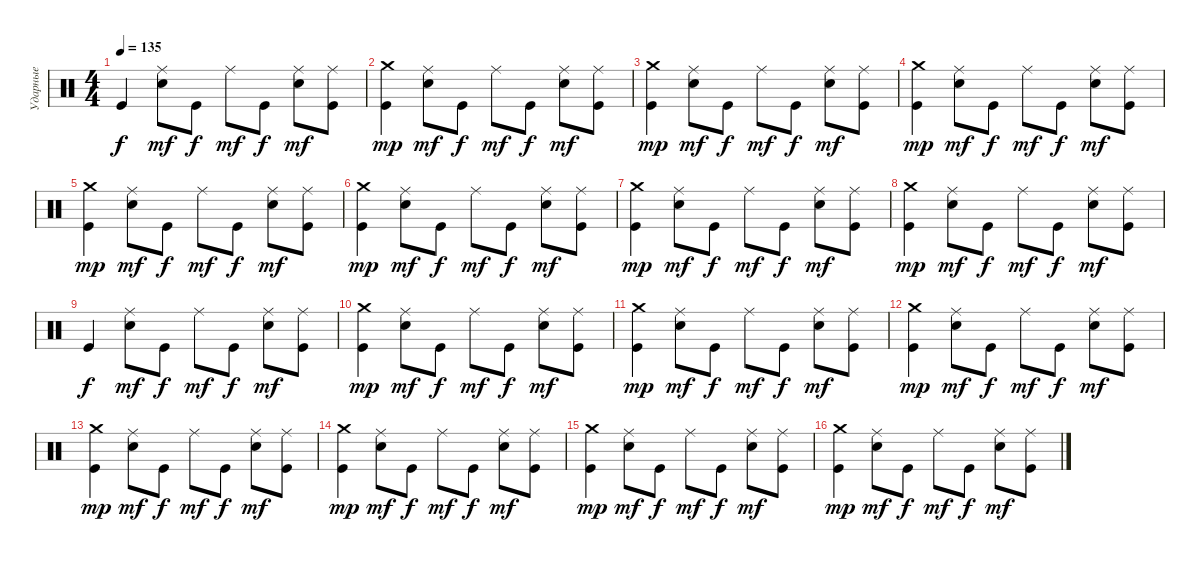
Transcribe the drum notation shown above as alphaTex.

\track ("Ударные" "Ударные") {instrument percussion}
\staff {score}
\articulation defaults
\ts (4 4)
\tempo 135
\clef neutral
\ks c "Kick (hit)".4{dy f}
("Ride (middle)" "Electric Snare (hit)").8{dy mf} "Kick (hit)".8{dy f} "Ride (middle)".8{dy mf} "Kick (hit)".8{dy f} ("Ride (middle)" "Electric Snare (hit)").8{dy mf} ("Ride (middle)" "Kick (hit)").8 |
("Crash medium (hit)" "Kick (hit)").4{dy mp} ("Ride (middle)" "Electric Snare (hit)").8{dy mf} "Kick (hit)".8{dy f} "Ride (middle)".8{dy mf} "Kick (hit)".8{dy f} ("Ride (middle)" "Electric Snare (hit)").8{dy mf} ("Ride (middle)" "Kick (hit)").8 |
("Crash medium (hit)" "Kick (hit)").4{dy mp} ("Ride (middle)" "Electric Snare (hit)").8{dy mf} "Kick (hit)".8{dy f} "Ride (middle)".8{dy mf} "Kick (hit)".8{dy f} ("Ride (middle)" "Electric Snare (hit)").8{dy mf} ("Ride (middle)" "Kick (hit)").8 |
("Crash medium (hit)" "Kick (hit)").4{dy mp} ("Ride (middle)" "Electric Snare (hit)").8{dy mf} "Kick (hit)".8{dy f} "Ride (middle)".8{dy mf} "Kick (hit)".8{dy f} ("Ride (middle)" "Electric Snare (hit)").8{dy mf} ("Ride (middle)" "Kick (hit)").8 |
("Crash medium (hit)" "Kick (hit)").4{dy mp} ("Ride (middle)" "Electric Snare (hit)").8{dy mf} "Kick (hit)".8{dy f} "Ride (middle)".8{dy mf} "Kick (hit)".8{dy f} ("Ride (middle)" "Electric Snare (hit)").8{dy mf} ("Ride (middle)" "Kick (hit)").8 |
("Crash medium (hit)" "Kick (hit)").4{dy mp} ("Ride (middle)" "Electric Snare (hit)").8{dy mf} "Kick (hit)".8{dy f} "Ride (middle)".8{dy mf} "Kick (hit)".8{dy f} ("Ride (middle)" "Electric Snare (hit)").8{dy mf} ("Ride (middle)" "Kick (hit)").8 |
("Crash medium (hit)" "Kick (hit)").4{dy mp} ("Ride (middle)" "Electric Snare (hit)").8{dy mf} "Kick (hit)".8{dy f} "Ride (middle)".8{dy mf} "Kick (hit)".8{dy f} ("Ride (middle)" "Electric Snare (hit)").8{dy mf} ("Ride (middle)" "Kick (hit)").8 |
("Crash medium (hit)" "Kick (hit)").4{dy mp} ("Ride (middle)" "Electric Snare (hit)").8{dy mf} "Kick (hit)".8{dy f} "Ride (middle)".8{dy mf} "Kick (hit)".8{dy f} ("Ride (middle)" "Electric Snare (hit)").8{dy mf} ("Ride (middle)" "Kick (hit)").8 |
"Kick (hit)".4{dy f} ("Ride (middle)" "Electric Snare (hit)").8{dy mf} "Kick (hit)".8{dy f} "Ride (middle)".8{dy mf} "Kick (hit)".8{dy f} ("Ride (middle)" "Electric Snare (hit)").8{dy mf} ("Ride (middle)" "Kick (hit)").8 |
("Crash medium (hit)" "Kick (hit)").4{dy mp} ("Ride (middle)" "Electric Snare (hit)").8{dy mf} "Kick (hit)".8{dy f} "Ride (middle)".8{dy mf} "Kick (hit)".8{dy f} ("Ride (middle)" "Electric Snare (hit)").8{dy mf} ("Ride (middle)" "Kick (hit)").8 |
("Crash medium (hit)" "Kick (hit)").4{dy mp} ("Ride (middle)" "Electric Snare (hit)").8{dy mf} "Kick (hit)".8{dy f} "Ride (middle)".8{dy mf} "Kick (hit)".8{dy f} ("Ride (middle)" "Electric Snare (hit)").8{dy mf} ("Ride (middle)" "Kick (hit)").8 |
("Crash medium (hit)" "Kick (hit)").4{dy mp} ("Ride (middle)" "Electric Snare (hit)").8{dy mf} "Kick (hit)".8{dy f} "Ride (middle)".8{dy mf} "Kick (hit)".8{dy f} ("Ride (middle)" "Electric Snare (hit)").8{dy mf} ("Ride (middle)" "Kick (hit)").8 |
("Crash medium (hit)" "Kick (hit)").4{dy mp} ("Ride (middle)" "Electric Snare (hit)").8{dy mf} "Kick (hit)".8{dy f} "Ride (middle)".8{dy mf} "Kick (hit)".8{dy f} ("Ride (middle)" "Electric Snare (hit)").8{dy mf} ("Ride (middle)" "Kick (hit)").8 |
("Crash medium (hit)" "Kick (hit)").4{dy mp} ("Ride (middle)" "Electric Snare (hit)").8{dy mf} "Kick (hit)".8{dy f} "Ride (middle)".8{dy mf} "Kick (hit)".8{dy f} ("Ride (middle)" "Electric Snare (hit)").8{dy mf} ("Ride (middle)" "Kick (hit)").8 |
("Crash medium (hit)" "Kick (hit)").4{dy mp} ("Ride (middle)" "Electric Snare (hit)").8{dy mf} "Kick (hit)".8{dy f} "Ride (middle)".8{dy mf} "Kick (hit)".8{dy f} ("Ride (middle)" "Electric Snare (hit)").8{dy mf} ("Ride (middle)" "Kick (hit)").8 |
("Crash medium (hit)" "Kick (hit)").4{dy mp} ("Ride (middle)" "Electric Snare (hit)").8{dy mf} "Kick (hit)".8{dy f} "Ride (middle)".8{dy mf} "Kick (hit)".8{dy f} ("Ride (middle)" "Electric Snare (hit)").8{dy mf} ("Ride (middle)" "Kick (hit)").8
